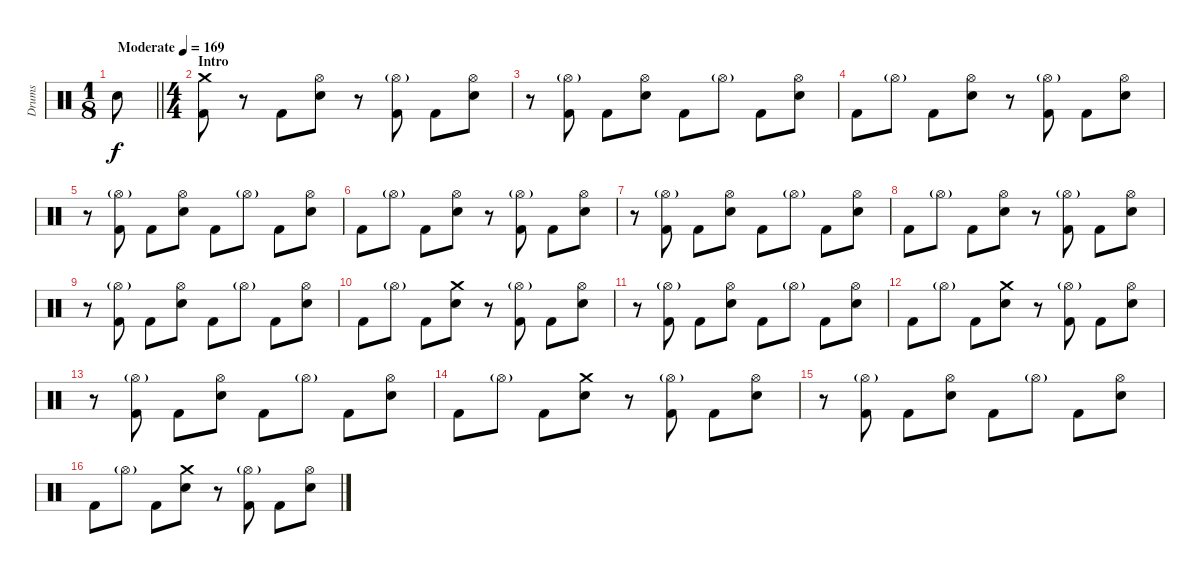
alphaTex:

\track ("Drums" "Drums") {instrument percussion}
\staff {score}
\articulation defaults
\ts (1 8)
\tempo (169 "Moderate")
\clef neutral
\barLineRight lightlight
\ks c "Electric Snare (hit)".8{dy f}
|
\ts (4 4)
\section ("" "Intro")
("Crash medium (hit)" "Kick (hit) 2").8 r.8 "Kick (hit) 2".8 ("Hi-Hat (open)" "Electric Snare (hit)").8 r.8 ("Hi-Hat (open)"{g} "Kick (hit) 2").8 "Kick (hit) 2".8 ("Hi-Hat (open)" "Electric Snare (hit)").8 |
r.8 ("Hi-Hat (open)"{g} "Kick (hit) 2").8 "Kick (hit) 2".8 ("Hi-Hat (open)" "Electric Snare (hit)").8 "Kick (hit) 2".8 "Hi-Hat (open)"{g}.8 "Kick (hit) 2".8 ("Hi-Hat (open)" "Electric Snare (hit)").8 |
"Kick (hit) 2".8 "Hi-Hat (open)"{g}.8 "Kick (hit) 2".8 ("Hi-Hat (open)" "Electric Snare (hit)").8 r.8 ("Hi-Hat (open)"{g} "Kick (hit) 2").8 "Kick (hit) 2".8 ("Hi-Hat (open)" "Electric Snare (hit)").8 |
r.8 ("Hi-Hat (open)"{g} "Kick (hit) 2").8 "Kick (hit) 2".8 ("Hi-Hat (open)" "Electric Snare (hit)").8 "Kick (hit) 2".8 "Hi-Hat (open)"{g}.8 "Kick (hit) 2".8 ("Hi-Hat (open)" "Electric Snare (hit)").8 |
"Kick (hit) 2".8 "Hi-Hat (open)"{g}.8 "Kick (hit) 2".8 ("Hi-Hat (open)" "Electric Snare (hit)").8 r.8 ("Hi-Hat (open)"{g} "Kick (hit) 2").8 "Kick (hit) 2".8 ("Hi-Hat (open)" "Electric Snare (hit)").8 |
r.8 ("Hi-Hat (open)"{g} "Kick (hit) 2").8 "Kick (hit) 2".8 ("Hi-Hat (open)" "Electric Snare (hit)").8 "Kick (hit) 2".8 "Hi-Hat (open)"{g}.8 "Kick (hit) 2".8 ("Hi-Hat (open)" "Electric Snare (hit)").8 |
"Kick (hit) 2".8 "Hi-Hat (open)"{g}.8 "Kick (hit) 2".8 ("Hi-Hat (open)" "Electric Snare (hit)").8 r.8 ("Hi-Hat (open)"{g} "Kick (hit) 2").8 "Kick (hit) 2".8 ("Hi-Hat (open)" "Electric Snare (hit)").8 |
r.8 ("Hi-Hat (open)"{g} "Kick (hit) 2").8 "Kick (hit) 2".8 ("Hi-Hat (open)" "Electric Snare (hit)").8 "Kick (hit) 2".8 "Hi-Hat (open)"{g}.8 "Kick (hit) 2".8 ("Hi-Hat (open)" "Electric Snare (hit)").8 |
"Kick (hit) 2".8 "Hi-Hat (open)"{g}.8 "Kick (hit) 2".8 ("Crash medium (hit)" "Electric Snare (hit)").8 r.8 ("Hi-Hat (open)"{g} "Kick (hit) 2").8 "Kick (hit) 2".8 ("Hi-Hat (open)" "Electric Snare (hit)").8 |
r.8 ("Hi-Hat (open)"{g} "Kick (hit) 2").8 "Kick (hit) 2".8 ("Hi-Hat (open)" "Electric Snare (hit)").8 "Kick (hit) 2".8 "Hi-Hat (open)"{g}.8 "Kick (hit) 2".8 ("Hi-Hat (open)" "Electric Snare (hit)").8 |
"Kick (hit) 2".8 "Hi-Hat (open)"{g}.8 "Kick (hit) 2".8 ("Crash medium (hit)" "Electric Snare (hit)").8 r.8 ("Hi-Hat (open)"{g} "Kick (hit) 2").8 "Kick (hit) 2".8 ("Hi-Hat (open)" "Electric Snare (hit)").8 |
r.8 ("Hi-Hat (open)"{g} "Kick (hit) 2").8 "Kick (hit) 2".8 ("Hi-Hat (open)" "Electric Snare (hit)").8 "Kick (hit) 2".8 "Hi-Hat (open)"{g}.8 "Kick (hit) 2".8 ("Hi-Hat (open)" "Electric Snare (hit)").8 |
"Kick (hit) 2".8 "Hi-Hat (open)"{g}.8 "Kick (hit) 2".8 ("Crash medium (hit)" "Electric Snare (hit)").8 r.8 ("Hi-Hat (open)"{g} "Kick (hit) 2").8 "Kick (hit) 2".8 ("Hi-Hat (open)" "Electric Snare (hit)").8 |
r.8 ("Hi-Hat (open)"{g} "Kick (hit) 2").8 "Kick (hit) 2".8 ("Hi-Hat (open)" "Electric Snare (hit)").8 "Kick (hit) 2".8 "Hi-Hat (open)"{g}.8 "Kick (hit) 2".8 ("Hi-Hat (open)" "Electric Snare (hit)").8 |
"Kick (hit) 2".8 "Hi-Hat (open)"{g}.8 "Kick (hit) 2".8 ("Crash medium (hit)" "Electric Snare (hit)").8 r.8 ("Hi-Hat (open)"{g} "Kick (hit) 2").8 "Kick (hit) 2".8 ("Hi-Hat (open)" "Electric Snare (hit)").8
